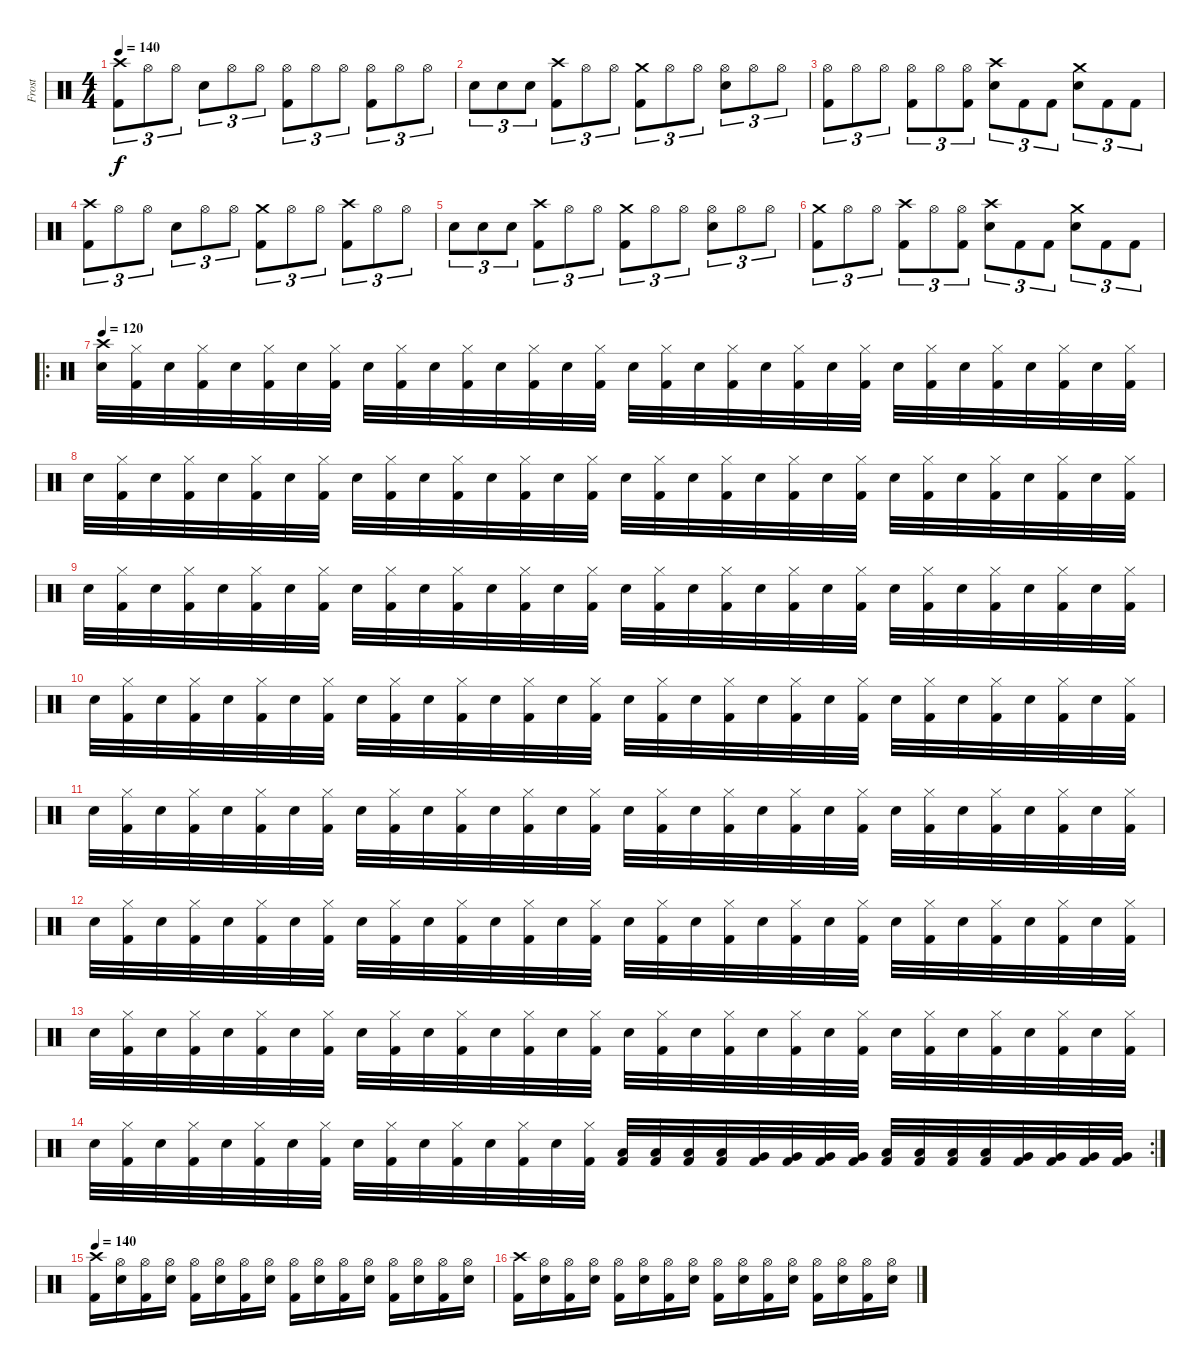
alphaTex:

\track ("Frost" "Frost") {instrument percussion}
\staff {score}
\articulation defaults
\ts (4 4)
\tempo 140
\clef neutral
\ks c
("Crash high (hit)" "Kick (hit) 2").8{tu (3 2) dy f} "Hi-Hat (open)".8{tu (3 2)} "Hi-Hat (open)".8{tu (3 2)} "Snare (hit) 2".8{tu (3 2)} "Hi-Hat (open)".8{tu (3 2)} "Hi-Hat (open)".8{tu (3 2)} ("Hi-Hat (open)" "Kick (hit) 2").8{tu (3 2)} "Hi-Hat (open)".8{tu (3 2)} "Hi-Hat (open)".8{tu (3 2)} ("Hi-Hat (open)" "Kick (hit) 2").8{tu (3 2)} "Hi-Hat (open)".8{tu (3 2)} "Hi-Hat (open)".8{tu (3 2)} |
"Snare (hit) 2".8{tu (3 2)} "Snare (hit) 2".8{tu (3 2)} "Snare (hit) 2".8{tu (3 2)} ("Crash high (hit)" "Kick (hit) 2").8{tu (3 2)} "Hi-Hat (open)".8{tu (3 2)} "Hi-Hat (open)".8{tu (3 2)} ("Crash medium (hit)" "Kick (hit) 2").8{tu (3 2)} "Hi-Hat (open)".8{tu (3 2)} "Hi-Hat (open)".8{tu (3 2)} ("Hi-Hat (open)" "Snare (hit) 2").8{tu (3 2)} "Hi-Hat (open)".8{tu (3 2)} "Hi-Hat (open)".8{tu (3 2)} |
("Hi-Hat (open)" "Kick (hit) 2").8{tu (3 2)} "Hi-Hat (open)".8{tu (3 2)} "Hi-Hat (open)".8{tu (3 2)} ("Hi-Hat (open)" "Kick (hit) 2").8{tu (3 2)} "Hi-Hat (open)".8{tu (3 2)} ("Hi-Hat (open)" "Kick (hit) 2").8{tu (3 2)} ("Crash high (hit)" "Snare (hit) 2").8{tu (3 2)} "Kick (hit) 2".8{tu (3 2)} "Kick (hit) 2".8{tu (3 2)} ("Crash medium (hit)" "Snare (hit) 2").8{tu (3 2)} "Kick (hit) 2".8{tu (3 2)} "Kick (hit) 2".8{tu (3 2)} |
("Crash high (hit)" "Kick (hit) 2").8{tu (3 2)} "Hi-Hat (open)".8{tu (3 2)} "Hi-Hat (open)".8{tu (3 2)} "Snare (hit) 2".8{tu (3 2)} "Hi-Hat (open)".8{tu (3 2)} "Hi-Hat (open)".8{tu (3 2)} ("Crash medium (hit)" "Kick (hit) 2").8{tu (3 2)} "Hi-Hat (open)".8{tu (3 2)} "Hi-Hat (open)".8{tu (3 2)} ("Crash high (hit)" "Kick (hit) 2").8{tu (3 2)} "Hi-Hat (open)".8{tu (3 2)} "Hi-Hat (open)".8{tu (3 2)} |
"Snare (hit) 2".8{tu (3 2)} "Snare (hit) 2".8{tu (3 2)} "Snare (hit) 2".8{tu (3 2)} ("Crash high (hit)" "Kick (hit) 2").8{tu (3 2)} "Hi-Hat (open)".8{tu (3 2)} "Hi-Hat (open)".8{tu (3 2)} ("Crash medium (hit)" "Kick (hit) 2").8{tu (3 2)} "Hi-Hat (open)".8{tu (3 2)} "Hi-Hat (open)".8{tu (3 2)} ("Hi-Hat (open)" "Snare (hit) 2").8{tu (3 2)} "Hi-Hat (open)".8{tu (3 2)} "Hi-Hat (open)".8{tu (3 2)} |
("Crash medium (hit)" "Kick (hit) 2").8{tu (3 2)} "Hi-Hat (open)".8{tu (3 2)} "Hi-Hat (open)".8{tu (3 2)} ("Crash high (hit)" "Kick (hit) 2").8{tu (3 2)} "Hi-Hat (open)".8{tu (3 2)} ("Hi-Hat (open)" "Kick (hit) 2").8{tu (3 2)} ("Crash high (hit)" "Snare (hit) 2").8{tu (3 2)} "Kick (hit) 2".8{tu (3 2)} "Kick (hit) 2".8{tu (3 2)} ("Crash medium (hit)" "Snare (hit) 2").8{tu (3 2)} "Kick (hit) 2".8{tu (3 2)} "Kick (hit) 2".8{tu (3 2)} |
\ro
\tempo 120
("Crash high (hit)" "Snare (hit) 2").32 ("Hi-Hat (closed)" "Kick (hit) 2").32 "Snare (hit) 2".32 ("Hi-Hat (closed)" "Kick (hit) 2").32 "Snare (hit) 2".32 ("Hi-Hat (closed)" "Kick (hit) 2").32 "Snare (hit) 2".32 ("Hi-Hat (closed)" "Kick (hit) 2").32 "Snare (hit) 2".32 ("Hi-Hat (closed)" "Kick (hit) 2").32 "Snare (hit) 2".32 ("Hi-Hat (closed)" "Kick (hit) 2").32 "Snare (hit) 2".32 ("Hi-Hat (closed)" "Kick (hit) 2").32 "Snare (hit) 2".32 ("Hi-Hat (closed)" "Kick (hit) 2").32 "Snare (hit) 2".32 ("Hi-Hat (closed)" "Kick (hit) 2").32 "Snare (hit) 2".32 ("Hi-Hat (closed)" "Kick (hit) 2").32 "Snare (hit) 2".32 ("Hi-Hat (closed)" "Kick (hit) 2").32 "Snare (hit) 2".32 ("Hi-Hat (closed)" "Kick (hit) 2").32 "Snare (hit) 2".32 ("Hi-Hat (closed)" "Kick (hit) 2").32 "Snare (hit) 2".32 ("Hi-Hat (closed)" "Kick (hit) 2").32 "Snare (hit) 2".32 ("Hi-Hat (closed)" "Kick (hit) 2").32 "Snare (hit) 2".32 ("Hi-Hat (closed)" "Kick (hit) 2").32 |
"Snare (hit) 2".32 ("Hi-Hat (closed)" "Kick (hit) 2").32 "Snare (hit) 2".32 ("Hi-Hat (closed)" "Kick (hit) 2").32 "Snare (hit) 2".32 ("Hi-Hat (closed)" "Kick (hit) 2").32 "Snare (hit) 2".32 ("Hi-Hat (closed)" "Kick (hit) 2").32 "Snare (hit) 2".32 ("Hi-Hat (closed)" "Kick (hit) 2").32 "Snare (hit) 2".32 ("Hi-Hat (closed)" "Kick (hit) 2").32 "Snare (hit) 2".32 ("Hi-Hat (closed)" "Kick (hit) 2").32 "Snare (hit) 2".32 ("Hi-Hat (closed)" "Kick (hit) 2").32 "Snare (hit) 2".32 ("Hi-Hat (closed)" "Kick (hit) 2").32 "Snare (hit) 2".32 ("Hi-Hat (closed)" "Kick (hit) 2").32 "Snare (hit) 2".32 ("Hi-Hat (closed)" "Kick (hit) 2").32 "Snare (hit) 2".32 ("Hi-Hat (closed)" "Kick (hit) 2").32 "Snare (hit) 2".32 ("Hi-Hat (closed)" "Kick (hit) 2").32 "Snare (hit) 2".32 ("Hi-Hat (closed)" "Kick (hit) 2").32 "Snare (hit) 2".32 ("Hi-Hat (closed)" "Kick (hit) 2").32 "Snare (hit) 2".32 ("Hi-Hat (closed)" "Kick (hit) 2").32 |
"Snare (hit) 2".32 ("Hi-Hat (closed)" "Kick (hit) 2").32 "Snare (hit) 2".32 ("Hi-Hat (closed)" "Kick (hit) 2").32 "Snare (hit) 2".32 ("Hi-Hat (closed)" "Kick (hit) 2").32 "Snare (hit) 2".32 ("Hi-Hat (closed)" "Kick (hit) 2").32 "Snare (hit) 2".32 ("Hi-Hat (closed)" "Kick (hit) 2").32 "Snare (hit) 2".32 ("Hi-Hat (closed)" "Kick (hit) 2").32 "Snare (hit) 2".32 ("Hi-Hat (closed)" "Kick (hit) 2").32 "Snare (hit) 2".32 ("Hi-Hat (closed)" "Kick (hit) 2").32 "Snare (hit) 2".32 ("Hi-Hat (closed)" "Kick (hit) 2").32 "Snare (hit) 2".32 ("Hi-Hat (closed)" "Kick (hit) 2").32 "Snare (hit) 2".32 ("Hi-Hat (closed)" "Kick (hit) 2").32 "Snare (hit) 2".32 ("Hi-Hat (closed)" "Kick (hit) 2").32 "Snare (hit) 2".32 ("Hi-Hat (closed)" "Kick (hit) 2").32 "Snare (hit) 2".32 ("Hi-Hat (closed)" "Kick (hit) 2").32 "Snare (hit) 2".32 ("Hi-Hat (closed)" "Kick (hit) 2").32 "Snare (hit) 2".32 ("Hi-Hat (closed)" "Kick (hit) 2").32 |
"Snare (hit) 2".32 ("Hi-Hat (closed)" "Kick (hit) 2").32 "Snare (hit) 2".32 ("Hi-Hat (closed)" "Kick (hit) 2").32 "Snare (hit) 2".32 ("Hi-Hat (closed)" "Kick (hit) 2").32 "Snare (hit) 2".32 ("Hi-Hat (closed)" "Kick (hit) 2").32 "Snare (hit) 2".32 ("Hi-Hat (closed)" "Kick (hit) 2").32 "Snare (hit) 2".32 ("Hi-Hat (closed)" "Kick (hit) 2").32 "Snare (hit) 2".32 ("Hi-Hat (closed)" "Kick (hit) 2").32 "Snare (hit) 2".32 ("Hi-Hat (closed)" "Kick (hit) 2").32 "Snare (hit) 2".32 ("Hi-Hat (closed)" "Kick (hit) 2").32 "Snare (hit) 2".32 ("Hi-Hat (closed)" "Kick (hit) 2").32 "Snare (hit) 2".32 ("Hi-Hat (closed)" "Kick (hit) 2").32 "Snare (hit) 2".32 ("Hi-Hat (closed)" "Kick (hit) 2").32 "Snare (hit) 2".32 ("Hi-Hat (closed)" "Kick (hit) 2").32 "Snare (hit) 2".32 ("Hi-Hat (closed)" "Kick (hit) 2").32 "Snare (hit) 2".32 ("Hi-Hat (closed)" "Kick (hit) 2").32 "Snare (hit) 2".32 ("Hi-Hat (closed)" "Kick (hit) 2").32 |
"Snare (hit) 2".32 ("Hi-Hat (closed)" "Kick (hit) 2").32 "Snare (hit) 2".32 ("Hi-Hat (closed)" "Kick (hit) 2").32 "Snare (hit) 2".32 ("Hi-Hat (closed)" "Kick (hit) 2").32 "Snare (hit) 2".32 ("Hi-Hat (closed)" "Kick (hit) 2").32 "Snare (hit) 2".32 ("Hi-Hat (closed)" "Kick (hit) 2").32 "Snare (hit) 2".32 ("Hi-Hat (closed)" "Kick (hit) 2").32 "Snare (hit) 2".32 ("Hi-Hat (closed)" "Kick (hit) 2").32 "Snare (hit) 2".32 ("Hi-Hat (closed)" "Kick (hit) 2").32 "Snare (hit) 2".32 ("Hi-Hat (closed)" "Kick (hit) 2").32 "Snare (hit) 2".32 ("Hi-Hat (closed)" "Kick (hit) 2").32 "Snare (hit) 2".32 ("Hi-Hat (closed)" "Kick (hit) 2").32 "Snare (hit) 2".32 ("Hi-Hat (closed)" "Kick (hit) 2").32 "Snare (hit) 2".32 ("Hi-Hat (closed)" "Kick (hit) 2").32 "Snare (hit) 2".32 ("Hi-Hat (closed)" "Kick (hit) 2").32 "Snare (hit) 2".32 ("Hi-Hat (closed)" "Kick (hit) 2").32 "Snare (hit) 2".32 ("Hi-Hat (closed)" "Kick (hit) 2").32 |
"Snare (hit) 2".32 ("Hi-Hat (closed)" "Kick (hit) 2").32 "Snare (hit) 2".32 ("Hi-Hat (closed)" "Kick (hit) 2").32 "Snare (hit) 2".32 ("Hi-Hat (closed)" "Kick (hit) 2").32 "Snare (hit) 2".32 ("Hi-Hat (closed)" "Kick (hit) 2").32 "Snare (hit) 2".32 ("Hi-Hat (closed)" "Kick (hit) 2").32 "Snare (hit) 2".32 ("Hi-Hat (closed)" "Kick (hit) 2").32 "Snare (hit) 2".32 ("Hi-Hat (closed)" "Kick (hit) 2").32 "Snare (hit) 2".32 ("Hi-Hat (closed)" "Kick (hit) 2").32 "Snare (hit) 2".32 ("Hi-Hat (closed)" "Kick (hit) 2").32 "Snare (hit) 2".32 ("Hi-Hat (closed)" "Kick (hit) 2").32 "Snare (hit) 2".32 ("Hi-Hat (closed)" "Kick (hit) 2").32 "Snare (hit) 2".32 ("Hi-Hat (closed)" "Kick (hit) 2").32 "Snare (hit) 2".32 ("Hi-Hat (closed)" "Kick (hit) 2").32 "Snare (hit) 2".32 ("Hi-Hat (closed)" "Kick (hit) 2").32 "Snare (hit) 2".32 ("Hi-Hat (closed)" "Kick (hit) 2").32 "Snare (hit) 2".32 ("Hi-Hat (closed)" "Kick (hit) 2").32 |
"Snare (hit) 2".32 ("Hi-Hat (closed)" "Kick (hit) 2").32 "Snare (hit) 2".32 ("Hi-Hat (closed)" "Kick (hit) 2").32 "Snare (hit) 2".32 ("Hi-Hat (closed)" "Kick (hit) 2").32 "Snare (hit) 2".32 ("Hi-Hat (closed)" "Kick (hit) 2").32 "Snare (hit) 2".32 ("Hi-Hat (closed)" "Kick (hit) 2").32 "Snare (hit) 2".32 ("Hi-Hat (closed)" "Kick (hit) 2").32 "Snare (hit) 2".32 ("Hi-Hat (closed)" "Kick (hit) 2").32 "Snare (hit) 2".32 ("Hi-Hat (closed)" "Kick (hit) 2").32 "Snare (hit) 2".32 ("Hi-Hat (closed)" "Kick (hit) 2").32 "Snare (hit) 2".32 ("Hi-Hat (closed)" "Kick (hit) 2").32 "Snare (hit) 2".32 ("Hi-Hat (closed)" "Kick (hit) 2").32 "Snare (hit) 2".32 ("Hi-Hat (closed)" "Kick (hit) 2").32 "Snare (hit) 2".32 ("Hi-Hat (closed)" "Kick (hit) 2").32 "Snare (hit) 2".32 ("Hi-Hat (closed)" "Kick (hit) 2").32 "Snare (hit) 2".32 ("Hi-Hat (closed)" "Kick (hit) 2").32 "Snare (hit) 2".32 ("Hi-Hat (closed)" "Kick (hit) 2").32 |
\rc 2 "Snare (hit) 2".32
("Hi-Hat (closed)" "Kick (hit) 2").32 "Snare (hit) 2".32 ("Hi-Hat (closed)" "Kick (hit) 2").32 "Snare (hit) 2".32 ("Hi-Hat (closed)" "Kick (hit) 2").32 "Snare (hit) 2".32 ("Hi-Hat (closed)" "Kick (hit) 2").32 "Snare (hit) 2".32 ("Hi-Hat (closed)" "Kick (hit) 2").32 "Snare (hit) 2".32 ("Hi-Hat (closed)" "Kick (hit) 2").32 "Snare (hit) 2".32 ("Hi-Hat (closed)" "Kick (hit) 2").32 "Snare (hit) 2".32 ("Hi-Hat (closed)" "Kick (hit) 2").32 ("Low Tom (hit)" "Kick (hit) 2").32 ("Low Tom (hit)" "Kick (hit) 2").32 ("Low Tom (hit)" "Kick (hit) 2").32 ("Low Tom (hit)" "Kick (hit) 2").32 ("Very Low Tom (hit)" "Kick (hit) 2").32 ("Very Low Tom (hit)" "Kick (hit) 2").32 ("Very Low Tom (hit)" "Kick (hit) 2").32 ("Very Low Tom (hit)" "Kick (hit) 2").32 ("Low Tom (hit)" "Kick (hit) 2").32 ("Low Tom (hit)" "Kick (hit) 2").32 ("Low Tom (hit)" "Kick (hit) 2").32 ("Low Tom (hit)" "Kick (hit) 2").32 ("Very Low Tom (hit)" "Kick (hit) 2").32 ("Very Low Tom (hit)" "Kick (hit) 2").32 ("Very Low Tom (hit)" "Kick (hit) 2").32 ("Very Low Tom (hit)" "Kick (hit) 2").32 |
\tempo 140
("Crash high (hit)" "Kick (hit) 2").16 ("Hi-Hat (open)" "Snare (hit) 2").16 ("Hi-Hat (open)" "Kick (hit) 2").16 ("Hi-Hat (open)" "Snare (hit) 2").16 ("Hi-Hat (open)" "Kick (hit) 2").16 ("Hi-Hat (open)" "Snare (hit) 2").16 ("Hi-Hat (open)" "Kick (hit) 2").16 ("Hi-Hat (open)" "Snare (hit) 2").16 ("Hi-Hat (open)" "Kick (hit) 2").16 ("Hi-Hat (open)" "Snare (hit) 2").16 ("Hi-Hat (open)" "Kick (hit) 2").16 ("Hi-Hat (open)" "Snare (hit) 2").16 ("Hi-Hat (open)" "Kick (hit) 2").16 ("Hi-Hat (open)" "Snare (hit) 2").16 ("Hi-Hat (open)" "Kick (hit) 2").16 ("Hi-Hat (open)" "Snare (hit) 2").16 |
("Crash high (hit)" "Kick (hit) 2").16 ("Hi-Hat (open)" "Snare (hit) 2").16 ("Hi-Hat (open)" "Kick (hit) 2").16 ("Hi-Hat (open)" "Snare (hit) 2").16 ("Hi-Hat (open)" "Kick (hit) 2").16 ("Hi-Hat (open)" "Snare (hit) 2").16 ("Hi-Hat (open)" "Kick (hit) 2").16 ("Hi-Hat (open)" "Snare (hit) 2").16 ("Hi-Hat (open)" "Kick (hit) 2").16 ("Hi-Hat (open)" "Snare (hit) 2").16 ("Hi-Hat (open)" "Kick (hit) 2").16 ("Hi-Hat (open)" "Snare (hit) 2").16 ("Hi-Hat (open)" "Kick (hit) 2").16 ("Hi-Hat (open)" "Snare (hit) 2").16 ("Hi-Hat (open)" "Kick (hit) 2").16 ("Hi-Hat (open)" "Snare (hit) 2").16
